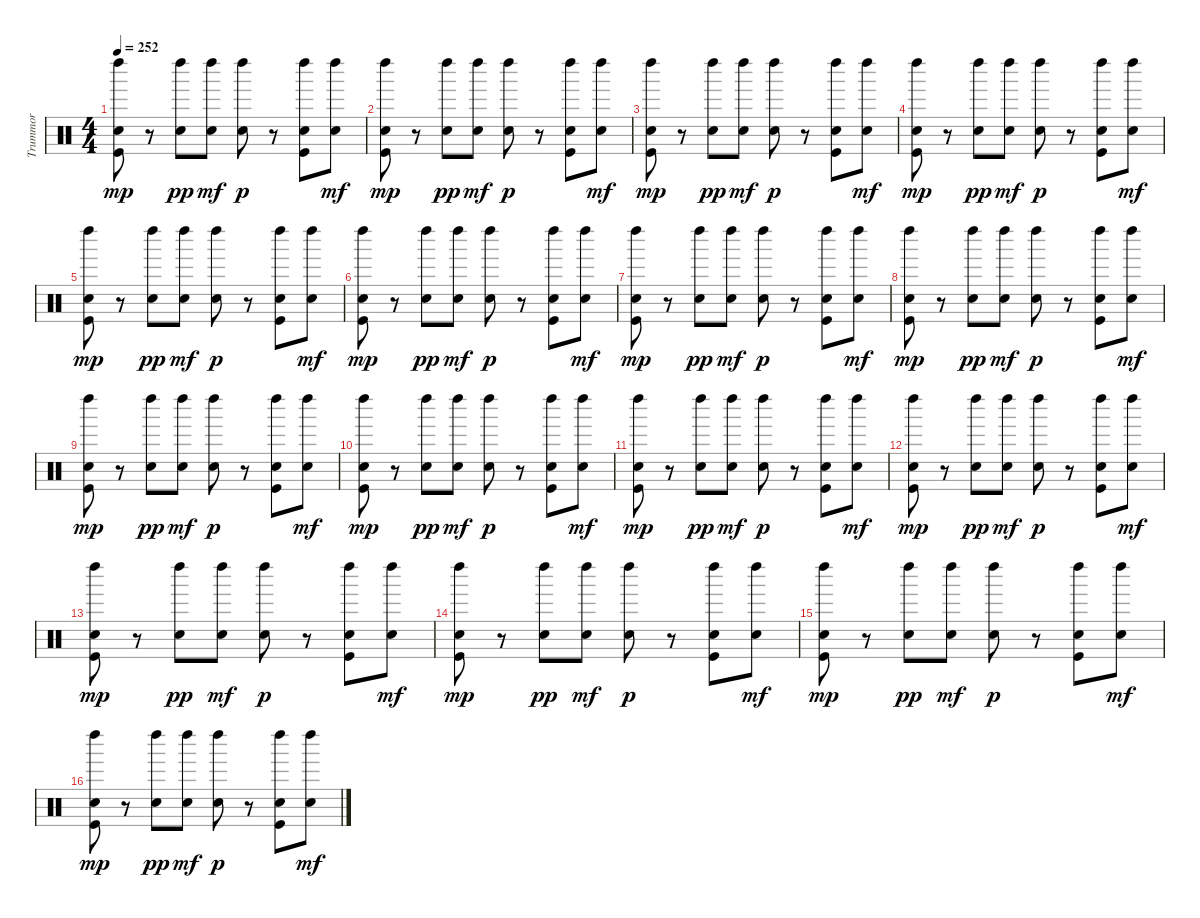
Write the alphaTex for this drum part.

\track ("Trummor" "Trummor") {instrument percussion}
\staff {score}
\articulation defaults
\ts (4 4)
\tempo 252
\clef neutral
\ks c
("Left Maraca (hit)" "Snare (hit) 2" "Kick (hit)").8{dy mp} r.8 ("Left Maraca (hit)" "Snare (hit) 2").8{dy pp} ("Left Maraca (hit)" "Snare (hit) 2").8{dy mf} ("Left Maraca (hit)" "Snare (hit) 2").8{dy p} r.8 ("Left Maraca (hit)" "Snare (hit) 2" "Kick (hit)").8 ("Left Maraca (hit)" "Snare (hit) 2").8{dy mf} |
("Left Maraca (hit)" "Snare (hit) 2" "Kick (hit)").8{dy mp} r.8 ("Left Maraca (hit)" "Snare (hit) 2").8{dy pp} ("Left Maraca (hit)" "Snare (hit) 2").8{dy mf} ("Left Maraca (hit)" "Snare (hit) 2").8{dy p} r.8 ("Left Maraca (hit)" "Snare (hit) 2" "Kick (hit)").8 ("Left Maraca (hit)" "Snare (hit) 2").8{dy mf} |
("Left Maraca (hit)" "Snare (hit) 2" "Kick (hit)").8{dy mp} r.8 ("Left Maraca (hit)" "Snare (hit) 2").8{dy pp} ("Left Maraca (hit)" "Snare (hit) 2").8{dy mf} ("Left Maraca (hit)" "Snare (hit) 2").8{dy p} r.8 ("Left Maraca (hit)" "Snare (hit) 2" "Kick (hit)").8 ("Left Maraca (hit)" "Snare (hit) 2").8{dy mf} |
("Left Maraca (hit)" "Snare (hit) 2" "Kick (hit)").8{dy mp} r.8 ("Left Maraca (hit)" "Snare (hit) 2").8{dy pp} ("Left Maraca (hit)" "Snare (hit) 2").8{dy mf} ("Left Maraca (hit)" "Snare (hit) 2").8{dy p} r.8 ("Left Maraca (hit)" "Snare (hit) 2" "Kick (hit)").8 ("Left Maraca (hit)" "Snare (hit) 2").8{dy mf} |
("Left Maraca (hit)" "Snare (hit) 2" "Kick (hit)").8{dy mp} r.8 ("Left Maraca (hit)" "Snare (hit) 2").8{dy pp} ("Left Maraca (hit)" "Snare (hit) 2").8{dy mf} ("Left Maraca (hit)" "Snare (hit) 2").8{dy p} r.8 ("Left Maraca (hit)" "Snare (hit) 2" "Kick (hit)").8 ("Left Maraca (hit)" "Snare (hit) 2").8{dy mf} |
("Left Maraca (hit)" "Snare (hit) 2" "Kick (hit)").8{dy mp} r.8 ("Left Maraca (hit)" "Snare (hit) 2").8{dy pp} ("Left Maraca (hit)" "Snare (hit) 2").8{dy mf} ("Left Maraca (hit)" "Snare (hit) 2").8{dy p} r.8 ("Left Maraca (hit)" "Snare (hit) 2" "Kick (hit)").8 ("Left Maraca (hit)" "Snare (hit) 2").8{dy mf} |
("Left Maraca (hit)" "Snare (hit) 2" "Kick (hit)").8{dy mp} r.8 ("Left Maraca (hit)" "Snare (hit) 2").8{dy pp} ("Left Maraca (hit)" "Snare (hit) 2").8{dy mf} ("Left Maraca (hit)" "Snare (hit) 2").8{dy p} r.8 ("Left Maraca (hit)" "Snare (hit) 2" "Kick (hit)").8 ("Left Maraca (hit)" "Snare (hit) 2").8{dy mf} |
("Left Maraca (hit)" "Snare (hit) 2" "Kick (hit)").8{dy mp} r.8 ("Left Maraca (hit)" "Snare (hit) 2").8{dy pp} ("Left Maraca (hit)" "Snare (hit) 2").8{dy mf} ("Left Maraca (hit)" "Snare (hit) 2").8{dy p} r.8 ("Left Maraca (hit)" "Snare (hit) 2" "Kick (hit)").8 ("Left Maraca (hit)" "Snare (hit) 2").8{dy mf} |
("Left Maraca (hit)" "Snare (hit) 2" "Kick (hit)").8{dy mp} r.8 ("Left Maraca (hit)" "Snare (hit) 2").8{dy pp} ("Left Maraca (hit)" "Snare (hit) 2").8{dy mf} ("Left Maraca (hit)" "Snare (hit) 2").8{dy p} r.8 ("Left Maraca (hit)" "Snare (hit) 2" "Kick (hit)").8 ("Left Maraca (hit)" "Snare (hit) 2").8{dy mf} |
("Left Maraca (hit)" "Snare (hit) 2" "Kick (hit)").8{dy mp} r.8 ("Left Maraca (hit)" "Snare (hit) 2").8{dy pp} ("Left Maraca (hit)" "Snare (hit) 2").8{dy mf} ("Left Maraca (hit)" "Snare (hit) 2").8{dy p} r.8 ("Left Maraca (hit)" "Snare (hit) 2" "Kick (hit)").8 ("Left Maraca (hit)" "Snare (hit) 2").8{dy mf} |
("Left Maraca (hit)" "Snare (hit) 2" "Kick (hit)").8{dy mp} r.8 ("Left Maraca (hit)" "Snare (hit) 2").8{dy pp} ("Left Maraca (hit)" "Snare (hit) 2").8{dy mf} ("Left Maraca (hit)" "Snare (hit) 2").8{dy p} r.8 ("Left Maraca (hit)" "Snare (hit) 2" "Kick (hit)").8 ("Left Maraca (hit)" "Snare (hit) 2").8{dy mf} |
("Left Maraca (hit)" "Snare (hit) 2" "Kick (hit)").8{dy mp} r.8 ("Left Maraca (hit)" "Snare (hit) 2").8{dy pp} ("Left Maraca (hit)" "Snare (hit) 2").8{dy mf} ("Left Maraca (hit)" "Snare (hit) 2").8{dy p} r.8 ("Left Maraca (hit)" "Snare (hit) 2" "Kick (hit)").8 ("Left Maraca (hit)" "Snare (hit) 2").8{dy mf} |
("Left Maraca (hit)" "Snare (hit) 2" "Kick (hit)").8{dy mp} r.8 ("Left Maraca (hit)" "Snare (hit) 2").8{dy pp} ("Left Maraca (hit)" "Snare (hit) 2").8{dy mf} ("Left Maraca (hit)" "Snare (hit) 2").8{dy p} r.8 ("Left Maraca (hit)" "Snare (hit) 2" "Kick (hit)").8 ("Left Maraca (hit)" "Snare (hit) 2").8{dy mf} |
("Left Maraca (hit)" "Snare (hit) 2" "Kick (hit)").8{dy mp} r.8 ("Left Maraca (hit)" "Snare (hit) 2").8{dy pp} ("Left Maraca (hit)" "Snare (hit) 2").8{dy mf} ("Left Maraca (hit)" "Snare (hit) 2").8{dy p} r.8 ("Left Maraca (hit)" "Snare (hit) 2" "Kick (hit)").8 ("Left Maraca (hit)" "Snare (hit) 2").8{dy mf} |
("Left Maraca (hit)" "Snare (hit) 2" "Kick (hit)").8{dy mp} r.8 ("Left Maraca (hit)" "Snare (hit) 2").8{dy pp} ("Left Maraca (hit)" "Snare (hit) 2").8{dy mf} ("Left Maraca (hit)" "Snare (hit) 2").8{dy p} r.8 ("Left Maraca (hit)" "Snare (hit) 2" "Kick (hit)").8 ("Left Maraca (hit)" "Snare (hit) 2").8{dy mf} |
("Left Maraca (hit)" "Snare (hit) 2" "Kick (hit)").8{dy mp} r.8 ("Left Maraca (hit)" "Snare (hit) 2").8{dy pp} ("Left Maraca (hit)" "Snare (hit) 2").8{dy mf} ("Left Maraca (hit)" "Snare (hit) 2").8{dy p} r.8 ("Left Maraca (hit)" "Snare (hit) 2" "Kick (hit)").8 ("Left Maraca (hit)" "Snare (hit) 2").8{dy mf}
